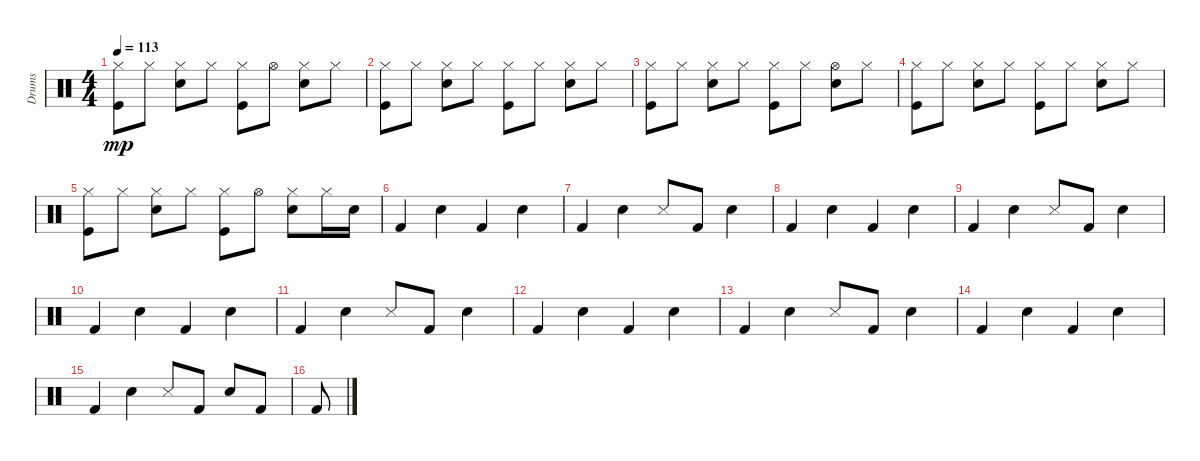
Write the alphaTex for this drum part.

\track ("Drums" "Drums") {instrument percussion}
\staff {score}
\articulation defaults
\ts (4 4)
\tempo 113
\clef neutral
\ks c
("Hi-Hat (closed)" "Kick (hit)").8{dy mp} "Hi-Hat (closed)".8 ("Hi-Hat (closed)" "Snare (hit) 2").8 "Hi-Hat (closed)".8 ("Hi-Hat (closed)" "Kick (hit)").8 "Hi-Hat (open)".8 ("Hi-Hat (closed)" "Snare (hit) 2").8 "Hi-Hat (closed)".8 |
("Hi-Hat (closed)" "Kick (hit)").8 "Hi-Hat (closed)".8 ("Hi-Hat (closed)" "Snare (hit) 2").8 "Hi-Hat (closed)".8 ("Hi-Hat (closed)" "Kick (hit)").8 "Hi-Hat (closed)".8 ("Hi-Hat (closed)" "Snare (hit) 2").8 "Hi-Hat (closed)".8 |
("Hi-Hat (closed)" "Kick (hit)").8 "Hi-Hat (closed)".8 ("Hi-Hat (closed)" "Snare (hit) 2").8 "Hi-Hat (closed)".8 ("Hi-Hat (closed)" "Kick (hit)").8 "Hi-Hat (closed)".8 ("Hi-Hat (open)" "Snare (hit) 2").8 "Hi-Hat (closed)".8 |
("Hi-Hat (closed)" "Kick (hit)").8 "Hi-Hat (closed)".8 ("Hi-Hat (closed)" "Snare (hit) 2").8 "Hi-Hat (closed)".8 ("Hi-Hat (closed)" "Kick (hit)").8 "Hi-Hat (closed)".8 ("Hi-Hat (closed)" "Snare (hit) 2").8 "Hi-Hat (closed)".8 |
("Hi-Hat (closed)" "Kick (hit)").8 "Hi-Hat (closed)".8 ("Hi-Hat (closed)" "Snare (hit) 2").8 "Hi-Hat (closed)".8 ("Hi-Hat (closed)" "Kick (hit)").8 "Hi-Hat (open)".8 ("Hi-Hat (closed)" "Snare (hit) 2").8 "Hi-Hat (closed)".16 "Snare (hit) 2".16 |
"Kick (hit) 2".4 "Snare (hit) 2".4 "Kick (hit) 2".4 "Snare (hit) 2".4 |
"Kick (hit) 2".4 "Snare (hit) 2".4 "Snare (side stick) 3".8 "Kick (hit) 2".8 "Snare (hit) 2".4 |
"Kick (hit) 2".4 "Snare (hit) 2".4 "Kick (hit) 2".4 "Snare (hit) 2".4 |
"Kick (hit) 2".4 "Snare (hit) 2".4 "Snare (side stick) 3".8 "Kick (hit) 2".8 "Snare (hit) 2".4 |
"Kick (hit) 2".4 "Snare (hit) 2".4 "Kick (hit) 2".4 "Snare (hit) 2".4 |
"Kick (hit) 2".4 "Snare (hit) 2".4 "Snare (side stick) 3".8 "Kick (hit) 2".8 "Snare (hit) 2".4 |
"Kick (hit) 2".4 "Snare (hit) 2".4 "Kick (hit) 2".4 "Snare (hit) 2".4 |
"Kick (hit) 2".4 "Snare (hit) 2".4 "Snare (side stick) 3".8 "Kick (hit) 2".8 "Snare (hit) 2".4 |
"Kick (hit) 2".4 "Snare (hit) 2".4 "Kick (hit) 2".4 "Snare (hit) 2".4 |
"Kick (hit) 2".4 "Snare (hit) 2".4 "Snare (side stick) 3".8 "Kick (hit) 2".8 "Snare (hit) 2".8 "Kick (hit) 2".8 |
"Kick (hit) 2".8
